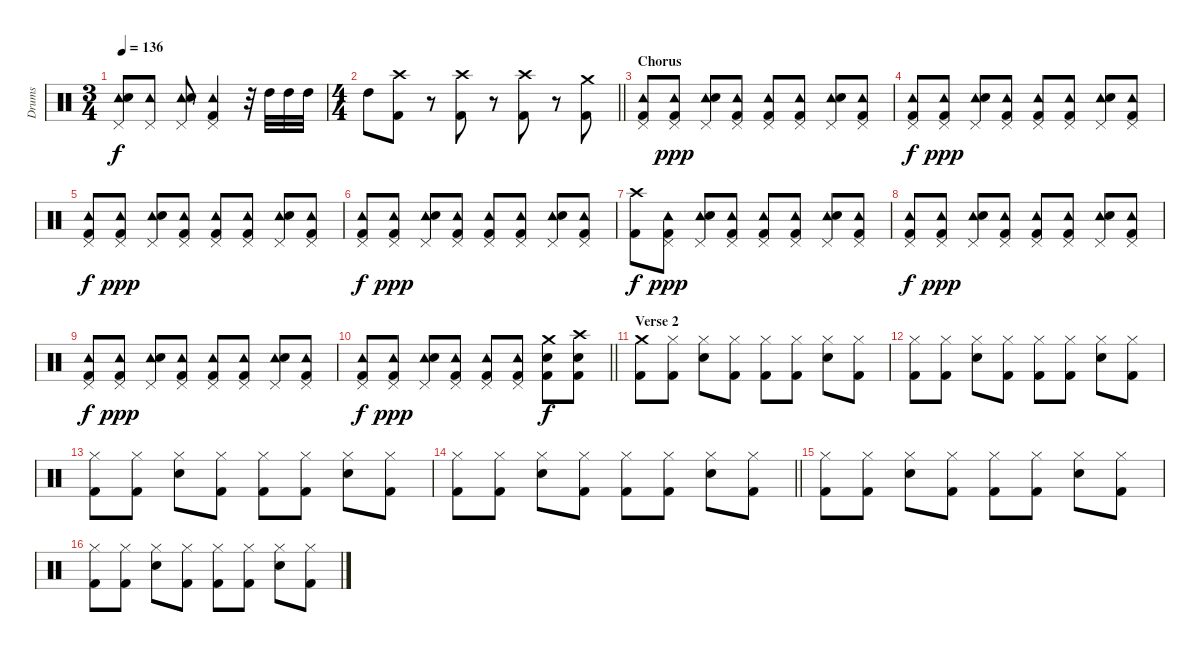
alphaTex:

\track ("Drums" "Drums") {instrument percussion}
\staff {score}
\articulation defaults
\ts (3 4)
\tempo 136
\clef neutral
\ks c
("Pedal Hi-Hat (hit)" "Tambourine (hit)" "Snare (hit) 2").8{dy f} ("Pedal Hi-Hat (hit)" "Tambourine (hit)").8 ("Pedal Hi-Hat (hit)" "Tambourine (hit)" "Snare (hit) 2").8 ("Pedal Hi-Hat (hit)" "Tambourine (hit)" "Kick (hit) 2").4 r.32 "High Tom (hit)".32 "High Tom (hit)".32 "High Tom (hit)".32 |
\ts (4 4)
\barLineRight lightlight "High Tom (hit)".8
("Crash high (hit)" "Kick (hit) 2").8 r.8 ("Crash high (hit)" "Kick (hit) 2").8 r.8 ("Crash high (hit)" "Kick (hit) 2").8 r.8 ("Crash medium (hit)" "Kick (hit) 2").8 |
\section ("" "Chorus")
("Pedal Hi-Hat (hit)" "Tambourine (hit)" "Kick (hit) 2").8 ("Pedal Hi-Hat (hit)" "Tambourine (hit)" "Kick (hit) 2").8{dy ppp} ("Pedal Hi-Hat (hit)" "Tambourine (hit)" "Snare (hit) 2").8 ("Pedal Hi-Hat (hit)" "Tambourine (hit)" "Kick (hit) 2").8 ("Pedal Hi-Hat (hit)" "Tambourine (hit)" "Kick (hit) 2").8 ("Pedal Hi-Hat (hit)" "Tambourine (hit)" "Kick (hit) 2").8 ("Pedal Hi-Hat (hit)" "Tambourine (hit)" "Snare (hit) 2").8 ("Pedal Hi-Hat (hit)" "Tambourine (hit)" "Kick (hit) 2").8 |
("Pedal Hi-Hat (hit)" "Tambourine (hit)" "Kick (hit) 2").8{dy f} ("Pedal Hi-Hat (hit)" "Tambourine (hit)" "Kick (hit) 2").8{dy ppp} ("Pedal Hi-Hat (hit)" "Tambourine (hit)" "Snare (hit) 2").8 ("Pedal Hi-Hat (hit)" "Tambourine (hit)" "Kick (hit) 2").8 ("Pedal Hi-Hat (hit)" "Tambourine (hit)" "Kick (hit) 2").8 ("Pedal Hi-Hat (hit)" "Tambourine (hit)" "Kick (hit) 2").8 ("Pedal Hi-Hat (hit)" "Tambourine (hit)" "Snare (hit) 2").8 ("Pedal Hi-Hat (hit)" "Tambourine (hit)" "Kick (hit) 2").8 |
("Pedal Hi-Hat (hit)" "Tambourine (hit)" "Kick (hit) 2").8{dy f} ("Pedal Hi-Hat (hit)" "Tambourine (hit)" "Kick (hit) 2").8{dy ppp} ("Pedal Hi-Hat (hit)" "Tambourine (hit)" "Snare (hit) 2").8 ("Pedal Hi-Hat (hit)" "Tambourine (hit)" "Kick (hit) 2").8 ("Pedal Hi-Hat (hit)" "Tambourine (hit)" "Kick (hit) 2").8 ("Pedal Hi-Hat (hit)" "Tambourine (hit)" "Kick (hit) 2").8 ("Pedal Hi-Hat (hit)" "Tambourine (hit)" "Snare (hit) 2").8 ("Pedal Hi-Hat (hit)" "Tambourine (hit)" "Kick (hit) 2").8 |
("Pedal Hi-Hat (hit)" "Tambourine (hit)" "Kick (hit) 2").8{dy f} ("Pedal Hi-Hat (hit)" "Tambourine (hit)" "Kick (hit) 2").8{dy ppp} ("Pedal Hi-Hat (hit)" "Tambourine (hit)" "Snare (hit) 2").8 ("Pedal Hi-Hat (hit)" "Tambourine (hit)" "Kick (hit) 2").8 ("Pedal Hi-Hat (hit)" "Tambourine (hit)" "Kick (hit) 2").8 ("Pedal Hi-Hat (hit)" "Tambourine (hit)" "Kick (hit) 2").8 ("Pedal Hi-Hat (hit)" "Tambourine (hit)" "Snare (hit) 2").8 ("Pedal Hi-Hat (hit)" "Tambourine (hit)" "Kick (hit) 2").8 |
("Crash high (hit)" "Kick (hit) 2").8{dy f} ("Pedal Hi-Hat (hit)" "Tambourine (hit)" "Kick (hit) 2").8{dy ppp} ("Pedal Hi-Hat (hit)" "Tambourine (hit)" "Snare (hit) 2").8 ("Pedal Hi-Hat (hit)" "Tambourine (hit)" "Kick (hit) 2").8 ("Pedal Hi-Hat (hit)" "Tambourine (hit)" "Kick (hit) 2").8 ("Pedal Hi-Hat (hit)" "Tambourine (hit)" "Kick (hit) 2").8 ("Pedal Hi-Hat (hit)" "Tambourine (hit)" "Snare (hit) 2").8 ("Pedal Hi-Hat (hit)" "Tambourine (hit)" "Kick (hit) 2").8 |
("Pedal Hi-Hat (hit)" "Tambourine (hit)" "Kick (hit) 2").8{dy f} ("Pedal Hi-Hat (hit)" "Tambourine (hit)" "Kick (hit) 2").8{dy ppp} ("Pedal Hi-Hat (hit)" "Tambourine (hit)" "Snare (hit) 2").8 ("Pedal Hi-Hat (hit)" "Tambourine (hit)" "Kick (hit) 2").8 ("Pedal Hi-Hat (hit)" "Tambourine (hit)" "Kick (hit) 2").8 ("Pedal Hi-Hat (hit)" "Tambourine (hit)" "Kick (hit) 2").8 ("Pedal Hi-Hat (hit)" "Tambourine (hit)" "Snare (hit) 2").8 ("Pedal Hi-Hat (hit)" "Tambourine (hit)" "Kick (hit) 2").8 |
("Pedal Hi-Hat (hit)" "Tambourine (hit)" "Kick (hit) 2").8{dy f} ("Pedal Hi-Hat (hit)" "Tambourine (hit)" "Kick (hit) 2").8{dy ppp} ("Pedal Hi-Hat (hit)" "Tambourine (hit)" "Snare (hit) 2").8 ("Pedal Hi-Hat (hit)" "Tambourine (hit)" "Kick (hit) 2").8 ("Pedal Hi-Hat (hit)" "Tambourine (hit)" "Kick (hit) 2").8 ("Pedal Hi-Hat (hit)" "Tambourine (hit)" "Kick (hit) 2").8 ("Pedal Hi-Hat (hit)" "Tambourine (hit)" "Snare (hit) 2").8 ("Pedal Hi-Hat (hit)" "Tambourine (hit)" "Kick (hit) 2").8 |
\barLineRight lightlight
("Pedal Hi-Hat (hit)" "Tambourine (hit)" "Kick (hit) 2").8{dy f} ("Pedal Hi-Hat (hit)" "Tambourine (hit)" "Kick (hit) 2").8{dy ppp} ("Pedal Hi-Hat (hit)" "Tambourine (hit)" "Snare (hit) 2").8 ("Pedal Hi-Hat (hit)" "Tambourine (hit)" "Kick (hit) 2").8 ("Pedal Hi-Hat (hit)" "Tambourine (hit)" "Kick (hit) 2").8 ("Pedal Hi-Hat (hit)" "Tambourine (hit)" "Kick (hit) 2").8 ("Crash medium (hit)" "Snare (hit) 2" "Kick (hit) 2").8{dy f} ("Crash high (hit)" "Snare (hit) 2" "Kick (hit) 2").8 |
\section ("" "Verse 2")
("Crash medium (hit)" "Kick (hit) 2").8 ("Hi-Hat (closed)" "Kick (hit) 2").8 ("Hi-Hat (closed)" "Snare (hit) 2").8 ("Hi-Hat (closed)" "Kick (hit) 2").8 ("Hi-Hat (closed)" "Kick (hit) 2").8 ("Hi-Hat (closed)" "Kick (hit) 2").8 ("Hi-Hat (closed)" "Snare (hit) 2").8 ("Hi-Hat (closed)" "Kick (hit) 2").8 |
("Hi-Hat (closed)" "Kick (hit) 2").8 ("Hi-Hat (closed)" "Kick (hit) 2").8 ("Hi-Hat (closed)" "Snare (hit) 2").8 ("Hi-Hat (closed)" "Kick (hit) 2").8 ("Hi-Hat (closed)" "Kick (hit) 2").8 ("Hi-Hat (closed)" "Kick (hit) 2").8 ("Hi-Hat (closed)" "Snare (hit) 2").8 ("Hi-Hat (closed)" "Kick (hit) 2").8 |
("Hi-Hat (closed)" "Kick (hit) 2").8 ("Hi-Hat (closed)" "Kick (hit) 2").8 ("Hi-Hat (closed)" "Snare (hit) 2").8 ("Hi-Hat (closed)" "Kick (hit) 2").8 ("Hi-Hat (closed)" "Kick (hit) 2").8 ("Hi-Hat (closed)" "Kick (hit) 2").8 ("Hi-Hat (closed)" "Snare (hit) 2").8 ("Hi-Hat (closed)" "Kick (hit) 2").8 |
\barLineRight lightlight
("Hi-Hat (closed)" "Kick (hit) 2").8 ("Hi-Hat (closed)" "Kick (hit) 2").8 ("Hi-Hat (closed)" "Snare (hit) 2").8 ("Hi-Hat (closed)" "Kick (hit) 2").8 ("Hi-Hat (closed)" "Kick (hit) 2").8 ("Hi-Hat (closed)" "Kick (hit) 2").8 ("Hi-Hat (closed)" "Snare (hit) 2").8 ("Hi-Hat (closed)" "Kick (hit) 2").8 |
("Hi-Hat (closed)" "Kick (hit) 2").8 ("Hi-Hat (closed)" "Kick (hit) 2").8 ("Hi-Hat (closed)" "Snare (hit) 2").8 ("Hi-Hat (closed)" "Kick (hit) 2").8 ("Hi-Hat (closed)" "Kick (hit) 2").8 ("Hi-Hat (closed)" "Kick (hit) 2").8 ("Hi-Hat (closed)" "Snare (hit) 2").8 ("Hi-Hat (closed)" "Kick (hit) 2").8 |
("Hi-Hat (closed)" "Kick (hit) 2").8 ("Hi-Hat (closed)" "Kick (hit) 2").8 ("Hi-Hat (closed)" "Snare (hit) 2").8 ("Hi-Hat (closed)" "Kick (hit) 2").8 ("Hi-Hat (closed)" "Kick (hit) 2").8 ("Hi-Hat (closed)" "Kick (hit) 2").8 ("Hi-Hat (closed)" "Snare (hit) 2").8 ("Hi-Hat (closed)" "Kick (hit) 2").8
